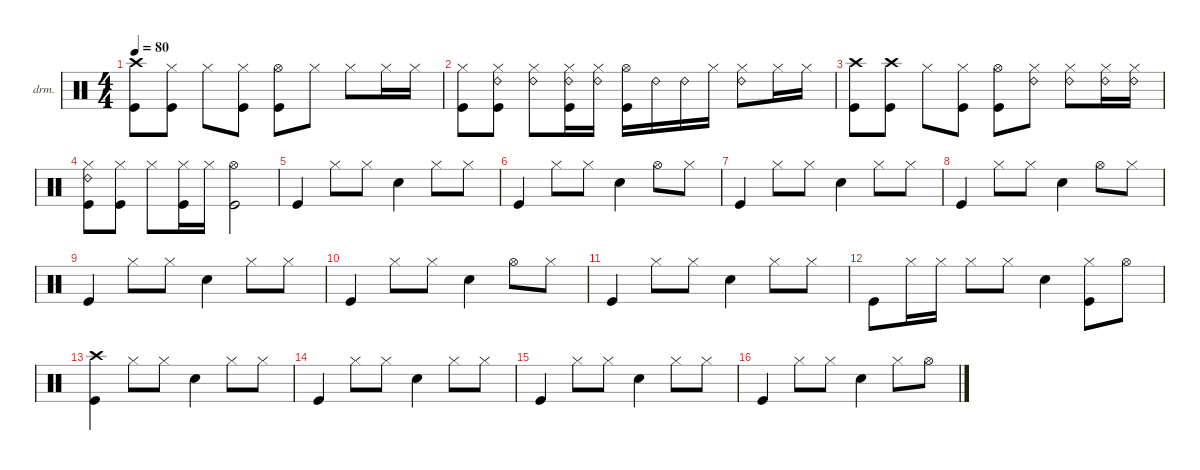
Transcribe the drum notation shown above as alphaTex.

\defaultSystemsLayout 4
\hideDynamics
\bracketExtendMode groupsimilarinstruments
\firstSystemTrackNameOrientation horizontal
\otherSystemsTrackNameOrientation horizontal
\chordDiagramsInScore
\track ("drum" "drm.") {instrument percussion}
\staff {score}
\articulation defaults
\ts (4 4)
\tempo 80
\clef neutral
\ks c
("Crash high (hit)" "Kick (hit)").8{dy f} ("Hi-Hat (closed)" "Kick (hit)").8 "Hi-Hat (closed)".8 ("Hi-Hat (closed)" "Kick (hit)").8 ("Hi-Hat (open)" "Kick (hit)").8 "Hi-Hat (closed)".8 "Hi-Hat (closed)".8 "Hi-Hat (closed)".16 "Hi-Hat (closed)".16 |
("Hi-Hat (closed)" "Kick (hit)").8 ("Hi-Hat (closed)" "Kick (hit)" "Ride (bell) 2").8 ("Hi-Hat (closed)" "Ride (bell) 2").8 ("Hi-Hat (closed)" "Kick (hit)" "Ride (bell) 2").16 ("Hi-Hat (closed)" "Ride (bell) 2").16 ("Hi-Hat (open)" "Kick (hit)").16 "Ride (bell) 2".16 "Ride (bell) 2".16 "Hi-Hat (closed)".16 ("Hi-Hat (closed)" "Ride (bell) 2").8 "Hi-Hat (closed)".16 "Hi-Hat (closed)".16 |
("Crash high (hit)" "Kick (hit)").8 ("Crash high (hit)" "Kick (hit)").8 "Hi-Hat (closed)".8 ("Hi-Hat (closed)" "Kick (hit)").8 ("Hi-Hat (open)" "Kick (hit)").8 ("Hi-Hat (closed)" "Ride (bell) 2").8 ("Hi-Hat (closed)" "Ride (bell) 2").8 ("Hi-Hat (closed)" "Ride (bell) 2").16 ("Hi-Hat (closed)" "Ride (bell) 2").16 |
("Hi-Hat (closed)" "Kick (hit)" "Ride (bell) 2").8 ("Hi-Hat (closed)" "Kick (hit)").8 "Hi-Hat (closed)".8 ("Hi-Hat (closed)" "Kick (hit)").16 "Hi-Hat (closed)".16 ("Hi-Hat (open)" "Kick (hit)").2 |
"Kick (hit)".4 "Hi-Hat (closed)".8 "Hi-Hat (closed)".8 "Snare (hit) 2".4 "Hi-Hat (closed)".8 "Hi-Hat (closed)".8 |
"Kick (hit)".4 "Hi-Hat (closed)".8 "Hi-Hat (closed)".8 "Snare (hit) 2".4 "Hi-Hat (open)".8 "Hi-Hat (closed)".8 |
"Kick (hit)".4 "Hi-Hat (closed)".8 "Hi-Hat (closed)".8 "Snare (hit) 2".4 "Hi-Hat (closed)".8 "Hi-Hat (closed)".8 |
"Kick (hit)".4 "Hi-Hat (closed)".8 "Hi-Hat (closed)".8 "Snare (hit) 2".4 "Hi-Hat (open)".8 "Hi-Hat (closed)".8 |
"Kick (hit)".4 "Hi-Hat (closed)".8 "Hi-Hat (closed)".8 "Snare (hit) 2".4 "Hi-Hat (closed)".8 "Hi-Hat (closed)".8 |
"Kick (hit)".4 "Hi-Hat (closed)".8 "Hi-Hat (closed)".8 "Snare (hit) 2".4 "Hi-Hat (open)".8 "Hi-Hat (closed)".8 |
"Kick (hit)".4 "Hi-Hat (closed)".8 "Hi-Hat (closed)".8 "Snare (hit) 2".4 "Hi-Hat (closed)".8 "Hi-Hat (closed)".8 |
"Kick (hit)".8 "Hi-Hat (closed)".16 "Hi-Hat (closed)".16 "Hi-Hat (closed)".8 "Hi-Hat (closed)".8 "Snare (hit) 2".4 ("Hi-Hat (closed)" "Kick (hit)").8 "Hi-Hat (open)".8 |
("Crash high (hit)" "Kick (hit)").4 "Hi-Hat (closed)".8 "Hi-Hat (closed)".8 "Snare (hit) 2".4 "Hi-Hat (closed)".8 "Hi-Hat (closed)".8 |
"Kick (hit)".4 "Hi-Hat (closed)".8 "Hi-Hat (closed)".8 "Snare (hit) 2".4 "Hi-Hat (closed)".8 "Hi-Hat (closed)".8 |
"Kick (hit)".4 "Hi-Hat (closed)".8 "Hi-Hat (closed)".8 "Snare (hit) 2".4 "Hi-Hat (closed)".8 "Hi-Hat (closed)".8 |
"Kick (hit)".4 "Hi-Hat (closed)".8 "Hi-Hat (closed)".8 "Snare (hit) 2".4 "Hi-Hat (closed)".8 "Hi-Hat (open)".8
